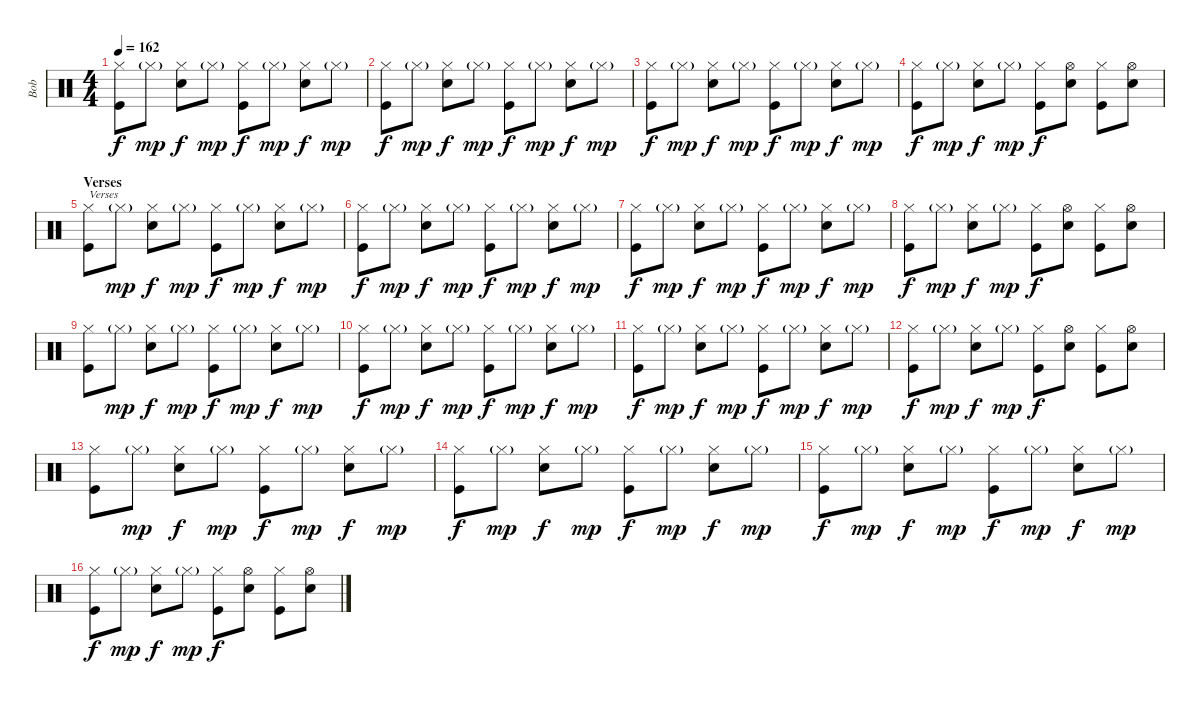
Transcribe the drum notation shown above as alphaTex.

\track ("Bob" "Bob") {instrument percussion}
\staff {score}
\articulation defaults
\ts (4 4)
\tempo 162
\clef neutral
\ks c
("Hi-Hat (closed)" "Kick (hit)").8{dy f} "Hi-Hat (closed)"{g}.8{dy mp} ("Hi-Hat (closed)" "Electric Snare (hit)").8{dy f} "Hi-Hat (closed)"{g}.8{dy mp} ("Hi-Hat (closed)" "Kick (hit)").8{dy f} "Hi-Hat (closed)"{g}.8{dy mp} ("Hi-Hat (closed)" "Electric Snare (hit)").8{dy f} "Hi-Hat (closed)"{g}.8{dy mp} |
("Hi-Hat (closed)" "Kick (hit)").8{dy f} "Hi-Hat (closed)"{g}.8{dy mp} ("Hi-Hat (closed)" "Electric Snare (hit)").8{dy f} "Hi-Hat (closed)"{g}.8{dy mp} ("Hi-Hat (closed)" "Kick (hit)").8{dy f} "Hi-Hat (closed)"{g}.8{dy mp} ("Hi-Hat (closed)" "Electric Snare (hit)").8{dy f} "Hi-Hat (closed)"{g}.8{dy mp} |
("Hi-Hat (closed)" "Kick (hit)").8{dy f} "Hi-Hat (closed)"{g}.8{dy mp} ("Hi-Hat (closed)" "Electric Snare (hit)").8{dy f} "Hi-Hat (closed)"{g}.8{dy mp} ("Hi-Hat (closed)" "Kick (hit)").8{dy f} "Hi-Hat (closed)"{g}.8{dy mp} ("Hi-Hat (closed)" "Electric Snare (hit)").8{dy f} "Hi-Hat (closed)"{g}.8{dy mp} |
("Hi-Hat (closed)" "Kick (hit)").8{dy f} "Hi-Hat (closed)"{g}.8{dy mp} ("Hi-Hat (closed)" "Electric Snare (hit)").8{dy f} "Hi-Hat (closed)"{g}.8{dy mp} ("Hi-Hat (closed)" "Kick (hit)").8{dy f} ("Hi-Hat (open)" "Electric Snare (hit)").8 ("Hi-Hat (closed)" "Kick (hit)").8 ("Hi-Hat (open)" "Electric Snare (hit)").8 |
\section ("" "Verses")
("Hi-Hat (closed)" "Kick (hit)").8{txt "Verses"} "Hi-Hat (closed)"{g}.8{dy mp} ("Hi-Hat (closed)" "Electric Snare (hit)").8{dy f} "Hi-Hat (closed)"{g}.8{dy mp} ("Hi-Hat (closed)" "Kick (hit)").8{dy f} "Hi-Hat (closed)"{g}.8{dy mp} ("Hi-Hat (closed)" "Electric Snare (hit)").8{dy f} "Hi-Hat (closed)"{g}.8{dy mp} |
("Hi-Hat (closed)" "Kick (hit)").8{dy f} "Hi-Hat (closed)"{g}.8{dy mp} ("Hi-Hat (closed)" "Electric Snare (hit)").8{dy f} "Hi-Hat (closed)"{g}.8{dy mp} ("Hi-Hat (closed)" "Kick (hit)").8{dy f} "Hi-Hat (closed)"{g}.8{dy mp} ("Hi-Hat (closed)" "Electric Snare (hit)").8{dy f} "Hi-Hat (closed)"{g}.8{dy mp} |
("Hi-Hat (closed)" "Kick (hit)").8{dy f} "Hi-Hat (closed)"{g}.8{dy mp} ("Hi-Hat (closed)" "Electric Snare (hit)").8{dy f} "Hi-Hat (closed)"{g}.8{dy mp} ("Hi-Hat (closed)" "Kick (hit)").8{dy f} "Hi-Hat (closed)"{g}.8{dy mp} ("Hi-Hat (closed)" "Electric Snare (hit)").8{dy f} "Hi-Hat (closed)"{g}.8{dy mp} |
("Hi-Hat (closed)" "Kick (hit)").8{dy f} "Hi-Hat (closed)"{g}.8{dy mp} ("Hi-Hat (closed)" "Electric Snare (hit)").8{dy f} "Hi-Hat (closed)"{g}.8{dy mp} ("Hi-Hat (closed)" "Kick (hit)").8{dy f} ("Hi-Hat (open)" "Electric Snare (hit)").8 ("Hi-Hat (closed)" "Kick (hit)").8 ("Hi-Hat (open)" "Electric Snare (hit)").8 |
("Hi-Hat (closed)" "Kick (hit)").8 "Hi-Hat (closed)"{g}.8{dy mp} ("Hi-Hat (closed)" "Electric Snare (hit)").8{dy f} "Hi-Hat (closed)"{g}.8{dy mp} ("Hi-Hat (closed)" "Kick (hit)").8{dy f} "Hi-Hat (closed)"{g}.8{dy mp} ("Hi-Hat (closed)" "Electric Snare (hit)").8{dy f} "Hi-Hat (closed)"{g}.8{dy mp} |
("Hi-Hat (closed)" "Kick (hit)").8{dy f} "Hi-Hat (closed)"{g}.8{dy mp} ("Hi-Hat (closed)" "Electric Snare (hit)").8{dy f} "Hi-Hat (closed)"{g}.8{dy mp} ("Hi-Hat (closed)" "Kick (hit)").8{dy f} "Hi-Hat (closed)"{g}.8{dy mp} ("Hi-Hat (closed)" "Electric Snare (hit)").8{dy f} "Hi-Hat (closed)"{g}.8{dy mp} |
("Hi-Hat (closed)" "Kick (hit)").8{dy f} "Hi-Hat (closed)"{g}.8{dy mp} ("Hi-Hat (closed)" "Electric Snare (hit)").8{dy f} "Hi-Hat (closed)"{g}.8{dy mp} ("Hi-Hat (closed)" "Kick (hit)").8{dy f} "Hi-Hat (closed)"{g}.8{dy mp} ("Hi-Hat (closed)" "Electric Snare (hit)").8{dy f} "Hi-Hat (closed)"{g}.8{dy mp} |
("Hi-Hat (closed)" "Kick (hit)").8{dy f} "Hi-Hat (closed)"{g}.8{dy mp} ("Hi-Hat (closed)" "Electric Snare (hit)").8{dy f} "Hi-Hat (closed)"{g}.8{dy mp} ("Hi-Hat (closed)" "Kick (hit)").8{dy f} ("Hi-Hat (open)" "Electric Snare (hit)").8 ("Hi-Hat (closed)" "Kick (hit)").8 ("Hi-Hat (open)" "Electric Snare (hit)").8 |
("Hi-Hat (closed)" "Kick (hit)").8 "Hi-Hat (closed)"{g}.8{dy mp} ("Hi-Hat (closed)" "Electric Snare (hit)").8{dy f} "Hi-Hat (closed)"{g}.8{dy mp} ("Hi-Hat (closed)" "Kick (hit)").8{dy f} "Hi-Hat (closed)"{g}.8{dy mp} ("Hi-Hat (closed)" "Electric Snare (hit)").8{dy f} "Hi-Hat (closed)"{g}.8{dy mp} |
("Hi-Hat (closed)" "Kick (hit)").8{dy f} "Hi-Hat (closed)"{g}.8{dy mp} ("Hi-Hat (closed)" "Electric Snare (hit)").8{dy f} "Hi-Hat (closed)"{g}.8{dy mp} ("Hi-Hat (closed)" "Kick (hit)").8{dy f} "Hi-Hat (closed)"{g}.8{dy mp} ("Hi-Hat (closed)" "Electric Snare (hit)").8{dy f} "Hi-Hat (closed)"{g}.8{dy mp} |
("Hi-Hat (closed)" "Kick (hit)").8{dy f} "Hi-Hat (closed)"{g}.8{dy mp} ("Hi-Hat (closed)" "Electric Snare (hit)").8{dy f} "Hi-Hat (closed)"{g}.8{dy mp} ("Hi-Hat (closed)" "Kick (hit)").8{dy f} "Hi-Hat (closed)"{g}.8{dy mp} ("Hi-Hat (closed)" "Electric Snare (hit)").8{dy f} "Hi-Hat (closed)"{g}.8{dy mp} |
("Hi-Hat (closed)" "Kick (hit)").8{dy f} "Hi-Hat (closed)"{g}.8{dy mp} ("Hi-Hat (closed)" "Electric Snare (hit)").8{dy f} "Hi-Hat (closed)"{g}.8{dy mp} ("Hi-Hat (closed)" "Kick (hit)").8{dy f} ("Hi-Hat (open)" "Electric Snare (hit)").8 ("Hi-Hat (closed)" "Kick (hit)").8 ("Hi-Hat (open)" "Electric Snare (hit)").8
